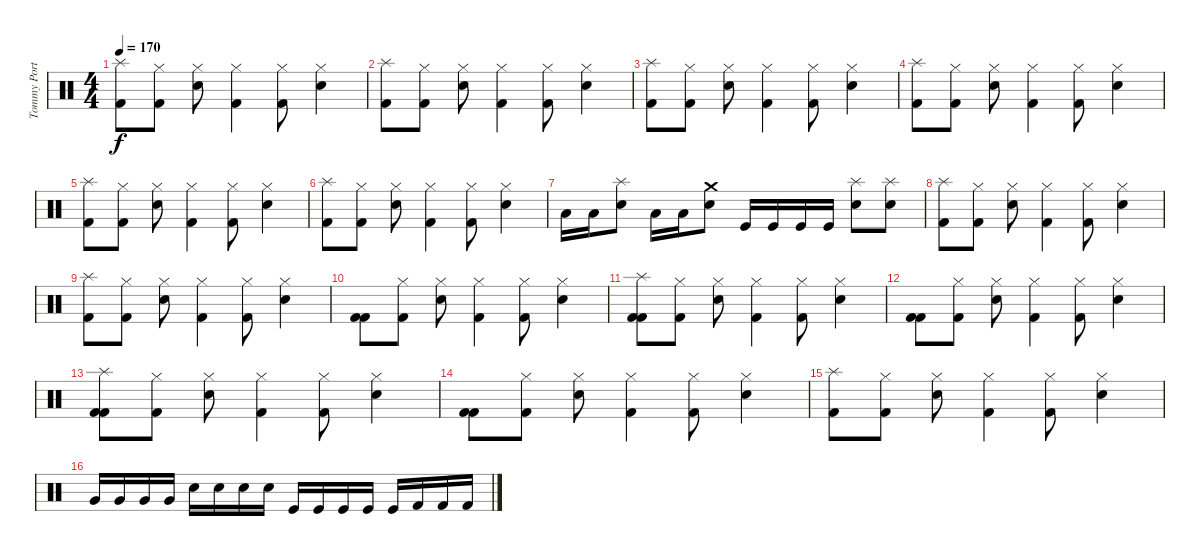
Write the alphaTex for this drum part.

\track ("Tommy Portimo" "Tommy Port") {instrument percussion}
\staff {score}
\articulation defaults
\ts (4 4)
\tempo 170
\clef neutral
\ks c
("Splash (hit)" "Kick (hit) 2").8{dy f} ("Kick (hit) 2" "Hi-Hat (closed)").8 ("Electric Snare (hit)" "Hi-Hat (closed)").8 ("Kick (hit) 2" "Hi-Hat (closed)").4 ("Kick (hit) 2" "Hi-Hat (closed)").8 ("Electric Snare (hit)" "Hi-Hat (closed)").4 |
("Splash (hit)" "Kick (hit) 2").8 ("Kick (hit) 2" "Hi-Hat (closed)").8 ("Electric Snare (hit)" "Hi-Hat (closed)").8 ("Kick (hit) 2" "Hi-Hat (closed)").4 ("Kick (hit) 2" "Hi-Hat (closed)").8 ("Electric Snare (hit)" "Hi-Hat (closed)").4 |
("Splash (hit)" "Kick (hit) 2").8 ("Kick (hit) 2" "Hi-Hat (closed)").8 ("Electric Snare (hit)" "Hi-Hat (closed)").8 ("Kick (hit) 2" "Hi-Hat (closed)").4 ("Kick (hit) 2" "Hi-Hat (closed)").8 ("Electric Snare (hit)" "Hi-Hat (closed)").4 |
("Splash (hit)" "Kick (hit) 2").8 ("Kick (hit) 2" "Hi-Hat (closed)").8 ("Electric Snare (hit)" "Hi-Hat (closed)").8 ("Kick (hit) 2" "Hi-Hat (closed)").4 ("Kick (hit) 2" "Hi-Hat (closed)").8 ("Electric Snare (hit)" "Hi-Hat (closed)").4 |
("Splash (hit)" "Kick (hit) 2").8 ("Kick (hit) 2" "Hi-Hat (closed)").8 ("Electric Snare (hit)" "Hi-Hat (closed)").8 ("Kick (hit) 2" "Hi-Hat (closed)").4 ("Kick (hit) 2" "Hi-Hat (closed)").8 ("Electric Snare (hit)" "Hi-Hat (closed)").4 |
("Splash (hit)" "Kick (hit) 2").8 ("Kick (hit) 2" "Hi-Hat (closed)").8 ("Electric Snare (hit)" "Hi-Hat (closed)").8 ("Kick (hit) 2" "Hi-Hat (closed)").4 ("Kick (hit) 2" "Hi-Hat (closed)").8 ("Electric Snare (hit)" "Hi-Hat (closed)").4 |
"Low Tom (hit)".16 "Low Tom (hit)".16 ("Splash (hit)" "Electric Snare (hit)").8 "Low Tom (hit)".16 "Low Tom (hit)".16 ("Crash medium (hit)" "Electric Snare (hit)").8 "Kick (hit)".16 "Kick (hit)".16 "Kick (hit)".16 "Kick (hit)".16 ("Electric Snare (hit)" "Splash (hit)").8 ("Electric Snare (hit)" "Splash (hit)").8 |
("Splash (hit)" "Kick (hit) 2").8 ("Kick (hit) 2" "Hi-Hat (closed)").8 ("Electric Snare (hit)" "Hi-Hat (closed)").8 ("Kick (hit) 2" "Hi-Hat (closed)").4 ("Kick (hit) 2" "Hi-Hat (closed)").8 ("Electric Snare (hit)" "Hi-Hat (closed)").4 |
("Splash (hit)" "Kick (hit) 2").8 ("Kick (hit) 2" "Hi-Hat (closed)").8 ("Electric Snare (hit)" "Hi-Hat (closed)").8 ("Kick (hit) 2" "Hi-Hat (closed)").4 ("Kick (hit) 2" "Hi-Hat (closed)").8 ("Electric Snare (hit)" "Hi-Hat (closed)").4 |
("Kick (hit) 2" "Kick (hit) 2").8 ("Kick (hit) 2" "Hi-Hat (closed)").8 ("Electric Snare (hit)" "Hi-Hat (closed)").8 ("Kick (hit) 2" "Hi-Hat (closed)").4 ("Kick (hit) 2" "Hi-Hat (closed)").8 ("Electric Snare (hit)" "Hi-Hat (closed)").4 |
("Splash (hit)" "Kick (hit) 2" "Kick (hit) 2").8 ("Kick (hit) 2" "Hi-Hat (closed)").8 ("Electric Snare (hit)" "Hi-Hat (closed)").8 ("Kick (hit) 2" "Hi-Hat (closed)").4 ("Kick (hit) 2" "Hi-Hat (closed)").8 ("Electric Snare (hit)" "Hi-Hat (closed)").4 |
("Kick (hit) 2" "Kick (hit) 2").8 ("Kick (hit) 2" "Hi-Hat (closed)").8 ("Electric Snare (hit)" "Hi-Hat (closed)").8 ("Kick (hit) 2" "Hi-Hat (closed)").4 ("Kick (hit) 2" "Hi-Hat (closed)").8 ("Electric Snare (hit)" "Hi-Hat (closed)").4 |
("Splash (hit)" "Kick (hit) 2" "Kick (hit) 2").8 ("Kick (hit) 2" "Hi-Hat (closed)").8 ("Electric Snare (hit)" "Hi-Hat (closed)").8 ("Kick (hit) 2" "Hi-Hat (closed)").4 ("Kick (hit) 2" "Hi-Hat (closed)").8 ("Electric Snare (hit)" "Hi-Hat (closed)").4 |
("Kick (hit) 2" "Kick (hit) 2").8 ("Kick (hit) 2" "Hi-Hat (closed)").8 ("Electric Snare (hit)" "Hi-Hat (closed)").8 ("Kick (hit) 2" "Hi-Hat (closed)").4 ("Kick (hit) 2" "Hi-Hat (closed)").8 ("Electric Snare (hit)" "Hi-Hat (closed)").4 |
("Splash (hit)" "Kick (hit) 2").8 ("Kick (hit) 2" "Hi-Hat (closed)").8 ("Electric Snare (hit)" "Hi-Hat (closed)").8 ("Kick (hit) 2" "Hi-Hat (closed)").4 ("Kick (hit) 2" "Hi-Hat (closed)").8 ("Electric Snare (hit)" "Hi-Hat (closed)").4 |
"Very Low Tom (hit)".16 "Very Low Tom (hit)".16 "Very Low Tom (hit)".16 "Very Low Tom (hit)".16 "Electric Snare (hit)".16 "Electric Snare (hit)".16 "Electric Snare (hit)".16 "Electric Snare (hit)".16 "Kick (hit)".16 "Kick (hit)".16 "Kick (hit)".16 "Kick (hit)".16 "Kick (hit)".16 "Kick (hit) 2".16 "Kick (hit) 2".16 "Kick (hit) 2".16
